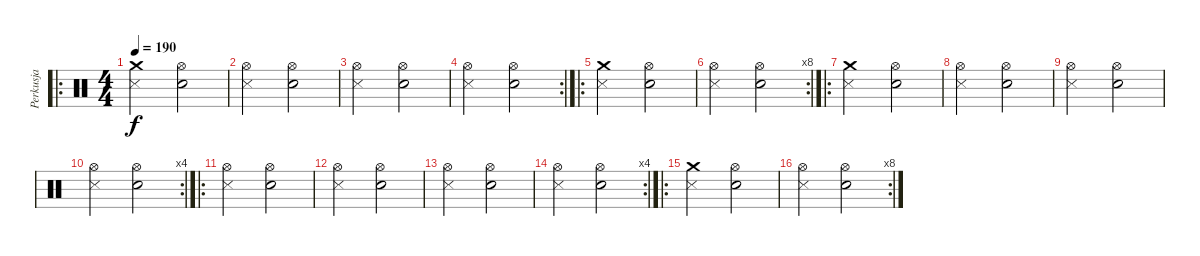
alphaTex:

\track ("Perkusja" "Perkusja") {instrument percussion}
\staff {score}
\articulation defaults
\ro
\ts (4 4)
\tempo 190
\clef neutral
\ks c
("Crash medium (hit)" "Metronome (hit)").2{dy f} ("Hi-Hat (open)" "Electric Snare (hit)").2 |
("Hi-Hat (open)" "Metronome (hit)").2 ("Hi-Hat (open)" "Electric Snare (hit)").2 |
("Hi-Hat (open)" "Metronome (hit)").2 ("Hi-Hat (open)" "Electric Snare (hit)").2 |
\rc 2
("Hi-Hat (open)" "Metronome (hit)").2 ("Hi-Hat (open)" "Electric Snare (hit)").2 |
\ro
("Crash medium (hit)" "Metronome (hit)").2 ("Hi-Hat (open)" "Electric Snare (hit)").2 |
\rc 8
("Hi-Hat (open)" "Metronome (hit)").2 ("Hi-Hat (open)" "Electric Snare (hit)").2 |
\ro
("Crash medium (hit)" "Metronome (hit)").2 ("Hi-Hat (open)" "Electric Snare (hit)").2 |
("Hi-Hat (open)" "Metronome (hit)").2 ("Hi-Hat (open)" "Electric Snare (hit)").2 |
("Hi-Hat (open)" "Metronome (hit)").2 ("Hi-Hat (open)" "Electric Snare (hit)").2 |
\rc 4
("Hi-Hat (open)" "Metronome (hit)").2 ("Hi-Hat (open)" "Electric Snare (hit)").2 |
\ro
("Hi-Hat (open)" "Metronome (hit)").2 ("Hi-Hat (open)" "Electric Snare (hit)").2 |
("Hi-Hat (open)" "Metronome (hit)").2 ("Hi-Hat (open)" "Electric Snare (hit)").2 |
("Hi-Hat (open)" "Metronome (hit)").2 ("Hi-Hat (open)" "Electric Snare (hit)").2 |
\rc 4
("Hi-Hat (open)" "Metronome (hit)").2 ("Hi-Hat (open)" "Electric Snare (hit)").2 |
\ro
("Crash medium (hit)" "Metronome (hit)").2 ("Hi-Hat (open)" "Electric Snare (hit)").2 |
\rc 8
("Hi-Hat (open)" "Metronome (hit)").2 ("Hi-Hat (open)" "Electric Snare (hit)").2
